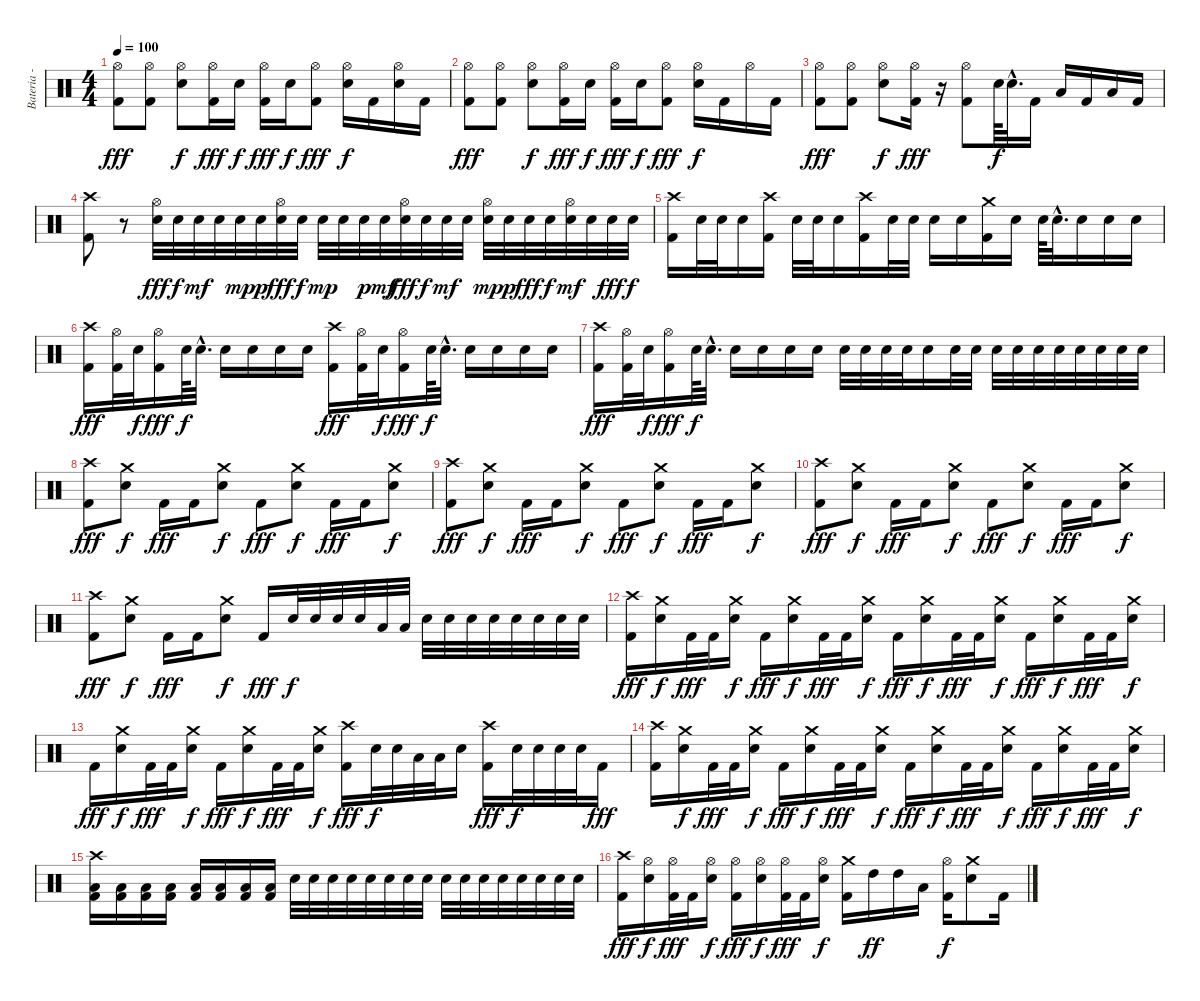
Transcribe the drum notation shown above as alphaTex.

\track ("Bateria - Drums" "Bateria - ") {instrument percussion}
\staff {score}
\articulation defaults
\ts (4 4)
\tempo 100
\clef neutral
\ks c
("Hi-Hat (open)" "Kick (hit) 2").8{dy fff} ("Hi-Hat (open)" "Kick (hit) 2").8 ("Hi-Hat (open)" "Electric Snare (hit)").8{dy f} ("Hi-Hat (open)" "Kick (hit) 2").16{dy fff} "Electric Snare (hit)".16{dy f} ("Hi-Hat (open)" "Kick (hit) 2").16{dy fff} "Electric Snare (hit)".16{dy f} ("Hi-Hat (open)" "Kick (hit) 2").8{dy fff} ("Hi-Hat (open)" "Electric Snare (hit)").16{dy f} "Kick (hit) 2".16 ("Hi-Hat (open)" "Electric Snare (hit)").16 "Kick (hit) 2".16 |
("Hi-Hat (open)" "Kick (hit) 2").8{dy fff} ("Hi-Hat (open)" "Kick (hit) 2").8 ("Hi-Hat (open)" "Electric Snare (hit)").8{dy f} ("Hi-Hat (open)" "Kick (hit) 2").16{dy fff} "Electric Snare (hit)".16{dy f} ("Hi-Hat (open)" "Kick (hit) 2").16{dy fff} "Electric Snare (hit)".16{dy f} ("Hi-Hat (open)" "Kick (hit) 2").8{dy fff} ("Hi-Hat (open)" "Electric Snare (hit)").16{dy f} "Kick (hit) 2".16 "Hi-Hat (open)".16 "Kick (hit) 2".16 |
("Hi-Hat (open)" "Kick (hit) 2").8{dy fff} ("Hi-Hat (open)" "Kick (hit) 2").8 ("Hi-Hat (open)" "Electric Snare (hit)").8{dy f} ("Hi-Hat (open)" "Kick (hit) 2").16{dy fff} r.16 ("Hi-Hat (open)" "Kick (hit) 2").8 "Electric Snare (hit)".64{dy f} "Electric Snare (hit)"{hac}.32{d} "Kick (hit) 2".16 "Low Tom (hit)".16 "Kick (hit) 2".16 "Low Floor Tom (hit)".16 "Kick (hit) 2".16 |
("Crash high (hit)" "Kick (hit) 2").8 r.8 ("Hi-Hat (open)" "Electric Snare (hit)").32{dy fff} "Electric Snare (hit)".32{dy f} "Electric Snare (hit)".32{dy mf} "Electric Snare (hit)".32 "Electric Snare (hit)".32{dy mp} "Electric Snare (hit)".32{dy p} ("Hi-Hat (open)" "Electric Snare (hit)").32{dy fff} "Electric Snare (hit)".32{dy f} "Electric Snare (hit)".32{dy mp} "Electric Snare (hit)".32 "Electric Snare (hit)".32{dy p} "Electric Snare (hit)".32{dy mf} ("Hi-Hat (open)" "Electric Snare (hit)").32{dy fff} "Electric Snare (hit)".32{dy f} "Electric Snare (hit)".32{dy mf} "Electric Snare (hit)".32 ("Hi-Hat (open)" "Electric Snare (hit)").32{dy mp} "Electric Snare (hit)".32{dy p} "Electric Snare (hit)".32{dy fff} "Electric Snare (hit)".32{dy f} ("Hi-Hat (open)" "Electric Snare (hit)").32{dy mf} "Electric Snare (hit)".32 "Electric Snare (hit)".32{dy fff} "Electric Snare (hit)".32{dy f} |
("Crash high (hit)" "Kick (hit) 2").16 "Electric Snare (hit)".32 "Electric Snare (hit)".32 "Electric Snare (hit)".16 ("Crash high (hit)" "Kick (hit) 2").16 "Electric Snare (hit)".32 "Electric Snare (hit)".32 "Electric Snare (hit)".16 ("Crash high (hit)" "Kick (hit) 2").16 "Electric Snare (hit)".32 "Electric Snare (hit)".32 "Electric Snare (hit)".16 "Electric Snare (hit)".16 ("Crash medium (hit)" "Kick (hit) 2").16 "Electric Snare (hit)".16 "Electric Snare (hit)".64 "Electric Snare (hit)"{hac}.32{d} "Electric Snare (hit)".16 "Electric Snare (hit)".16 "Electric Snare (hit)".16 |
("Crash high (hit)" "Kick (hit) 2").16{dy fff} ("Hi-Hat (open)" "Kick (hit) 2").32 "Electric Snare (hit)".32{dy f} ("Hi-Hat (open)" "Kick (hit) 2").16{dy fff} "Electric Snare (hit)".64{dy f} "Electric Snare (hit)"{hac}.32{d} "Electric Snare (hit)".16 "Electric Snare (hit)".16 "Electric Snare (hit)".16 "Electric Snare (hit)".16 ("Crash high (hit)" "Kick (hit) 2").16{dy fff} ("Hi-Hat (open)" "Kick (hit) 2").32 "Electric Snare (hit)".32{dy f} ("Hi-Hat (open)" "Kick (hit) 2").16{dy fff} "Electric Snare (hit)".64{dy f} "Electric Snare (hit)"{hac}.32{d} "Electric Snare (hit)".16 "Electric Snare (hit)".16 "Electric Snare (hit)".16 "Electric Snare (hit)".16 |
("Crash high (hit)" "Kick (hit) 2").16{dy fff} ("Hi-Hat (open)" "Kick (hit) 2").32 "Electric Snare (hit)".32{dy f} ("Hi-Hat (open)" "Kick (hit) 2").16{dy fff} "Electric Snare (hit)".64{dy f} "Electric Snare (hit)"{hac}.32{d} "Electric Snare (hit)".16 "Electric Snare (hit)".16 "Electric Snare (hit)".16 "Electric Snare (hit)".16 "Electric Snare (hit)".32 "Electric Snare (hit)".32 "Electric Snare (hit)".32 "Electric Snare (hit)".32 "Electric Snare (hit)".16 "Electric Snare (hit)".32 "Electric Snare (hit)".32 "Electric Snare (hit)".32 "Electric Snare (hit)".32 "Electric Snare (hit)".32 "Electric Snare (hit)".32 "Electric Snare (hit)".32 "Electric Snare (hit)".32 "Electric Snare (hit)".32 "Electric Snare (hit)".32 |
("Crash high (hit)" "Kick (hit) 2").8{dy fff} ("Crash medium (hit)" "Electric Snare (hit)").8{dy f} "Kick (hit) 2".16{dy fff} "Kick (hit) 2".16 ("Crash medium (hit)" "Electric Snare (hit)").8{dy f} "Kick (hit) 2".8{dy fff} ("Crash medium (hit)" "Electric Snare (hit)").8{dy f} "Kick (hit) 2".16{dy fff} "Kick (hit) 2".16 ("Crash medium (hit)" "Electric Snare (hit)").8{dy f} |
("Crash high (hit)" "Kick (hit) 2").8{dy fff} ("Crash medium (hit)" "Electric Snare (hit)").8{dy f} "Kick (hit) 2".16{dy fff} "Kick (hit) 2".16 ("Crash medium (hit)" "Electric Snare (hit)").8{dy f} "Kick (hit) 2".8{dy fff} ("Crash medium (hit)" "Electric Snare (hit)").8{dy f} "Kick (hit) 2".16{dy fff} "Kick (hit) 2".16 ("Crash medium (hit)" "Electric Snare (hit)").8{dy f} |
("Crash high (hit)" "Kick (hit) 2").8{dy fff} ("Crash medium (hit)" "Electric Snare (hit)").8{dy f} "Kick (hit) 2".16{dy fff} "Kick (hit) 2".16 ("Crash medium (hit)" "Electric Snare (hit)").8{dy f} "Kick (hit) 2".8{dy fff} ("Crash medium (hit)" "Electric Snare (hit)").8{dy f} "Kick (hit) 2".16{dy fff} "Kick (hit) 2".16 ("Crash medium (hit)" "Electric Snare (hit)").8{dy f} |
("Crash high (hit)" "Kick (hit) 2").8{dy fff} ("Crash medium (hit)" "Electric Snare (hit)").8{dy f} "Kick (hit) 2".16{dy fff} "Kick (hit) 2".16 ("Crash medium (hit)" "Electric Snare (hit)").8{dy f} "Kick (hit) 2".16{dy fff} "Electric Snare (hit)".32{dy f} "Electric Snare (hit)".32 "Electric Snare (hit)".32 "Electric Snare (hit)".32 "Low Tom (hit)".32 "Low Tom (hit)".32 "Electric Snare (hit)".32 "Electric Snare (hit)".32 "Electric Snare (hit)".32 "Electric Snare (hit)".32 "Electric Snare (hit)".32 "Electric Snare (hit)".32 "Electric Snare (hit)".32 "Electric Snare (hit)".32 |
("Crash high (hit)" "Kick (hit) 2").16{dy fff} ("Crash medium (hit)" "Electric Snare (hit)").16{dy f} "Kick (hit) 2".32{dy fff} "Kick (hit) 2".32 ("Crash medium (hit)" "Electric Snare (hit)").16{dy f} "Kick (hit) 2".16{dy fff} ("Crash medium (hit)" "Electric Snare (hit)").16{dy f} "Kick (hit) 2".32{dy fff} "Kick (hit) 2".32 ("Crash medium (hit)" "Electric Snare (hit)").16{dy f} "Kick (hit) 2".16{dy fff} ("Crash medium (hit)" "Electric Snare (hit)").16{dy f} "Kick (hit) 2".32{dy fff} "Kick (hit) 2".32 ("Crash medium (hit)" "Electric Snare (hit)").16{dy f} "Kick (hit) 2".16{dy fff} ("Crash medium (hit)" "Electric Snare (hit)").16{dy f} "Kick (hit) 2".32{dy fff} "Kick (hit) 2".32 ("Crash medium (hit)" "Electric Snare (hit)").16{dy f} |
"Kick (hit) 2".16{dy fff} ("Crash medium (hit)" "Electric Snare (hit)").16{dy f} "Kick (hit) 2".32{dy fff} "Kick (hit) 2".32 ("Crash medium (hit)" "Electric Snare (hit)").16{dy f} "Kick (hit) 2".16{dy fff} ("Crash medium (hit)" "Electric Snare (hit)").16{dy f} "Kick (hit) 2".32{dy fff} "Kick (hit) 2".32 ("Crash medium (hit)" "Electric Snare (hit)").16{dy f} ("Crash high (hit)" "Kick (hit) 2").16{dy fff} "Electric Snare (hit)".32{dy f} "Electric Snare (hit)".32 "Low Tom (hit)".32 "Low Tom (hit)".32 "Electric Snare (hit)".16 ("Crash high (hit)" "Kick (hit) 2").16{dy fff} "Electric Snare (hit)".32{dy f} "Electric Snare (hit)".32 "Electric Snare (hit)".32 "Electric Snare (hit)".32 "Kick (hit) 2".16{dy fff} |
("Crash high (hit)" "Kick (hit) 2").16 ("Crash medium (hit)" "Electric Snare (hit)").16{dy f} "Kick (hit) 2".32{dy fff} "Kick (hit) 2".32 ("Crash medium (hit)" "Electric Snare (hit)").16{dy f} "Kick (hit) 2".16{dy fff} ("Crash medium (hit)" "Electric Snare (hit)").16{dy f} "Kick (hit) 2".32{dy fff} "Kick (hit) 2".32 ("Crash medium (hit)" "Electric Snare (hit)").16{dy f} "Kick (hit) 2".16{dy fff} ("Crash medium (hit)" "Electric Snare (hit)").16{dy f} "Kick (hit) 2".32{dy fff} "Kick (hit) 2".32 ("Crash medium (hit)" "Electric Snare (hit)").16{dy f} "Kick (hit) 2".16{dy fff} ("Crash medium (hit)" "Electric Snare (hit)").16{dy f} "Kick (hit) 2".32{dy fff} "Kick (hit) 2".32 ("Crash medium (hit)" "Electric Snare (hit)").16{dy f} |
("Crash high (hit)" "Low Tom (hit)" "Kick (hit) 2").16 ("Low Tom (hit)" "Kick (hit) 2").16 ("Low Tom (hit)" "Kick (hit) 2").16 ("Low Tom (hit)" "Kick (hit) 2").16 ("Low Tom (hit)" "Kick (hit) 2").16 ("Low Tom (hit)" "Kick (hit) 2").16 ("Low Tom (hit)" "Kick (hit) 2").16 ("Low Tom (hit)" "Kick (hit) 2").16 "Electric Snare (hit)".32 "Electric Snare (hit)".32 "Electric Snare (hit)".32 "Electric Snare (hit)".32 "Electric Snare (hit)".32 "Electric Snare (hit)".32 "Electric Snare (hit)".32 "Electric Snare (hit)".32 "Electric Snare (hit)".32 "Electric Snare (hit)".32 "Electric Snare (hit)".32 "Electric Snare (hit)".32 "Electric Snare (hit)".32 "Electric Snare (hit)".32 "Electric Snare (hit)".32 "Electric Snare (hit)".32 |
("Crash high (hit)" "Kick (hit) 2").16{dy fff} ("Hi-Hat (open)" "Electric Snare (hit)").16{dy f} ("Hi-Hat (open)" "Kick (hit) 2").32{dy fff} "Kick (hit) 2".32 ("Hi-Hat (open)" "Electric Snare (hit)").16{dy f} ("Hi-Hat (open)" "Kick (hit) 2").16{dy fff} ("Hi-Hat (open)" "Electric Snare (hit)").16{dy f} ("Hi-Hat (open)" "Kick (hit) 2").32{dy fff} "Kick (hit) 2".32 ("Hi-Hat (open)" "Electric Snare (hit)").16{dy f} ("Crash medium (hit)" "Kick (hit) 2").16 "High Tom (hit)".16{dy ff} "High Tom (hit)".16 "Low Floor Tom (hit)".16 ("Hi-Hat (open)" "Kick (hit) 2").16{dy f} ("Crash medium (hit)" "Electric Snare (hit)").8 "Kick (hit) 2".16
